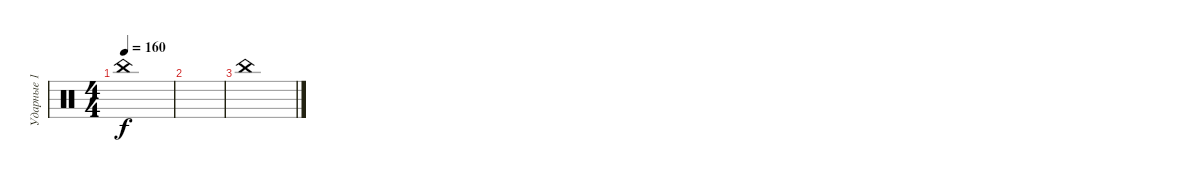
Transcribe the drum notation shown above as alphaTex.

\track ("Ударные 1" "Ударные 1") {instrument percussion}
\staff {score}
\articulation defaults
\ts (4 4)
\tempo 160
\clef neutral
\ks c "China (hit)".1{dy f}
|
|
"China (hit)".1
